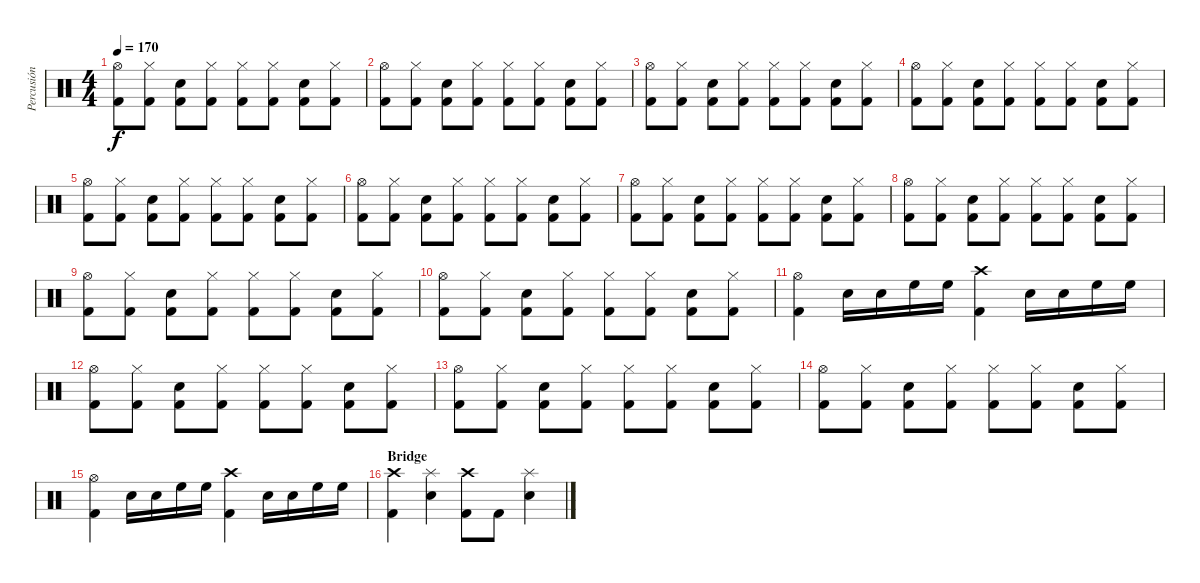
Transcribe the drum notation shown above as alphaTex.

\track ("Percusión" "Percusión") {instrument percussion}
\staff {score}
\articulation defaults
\ts (4 4)
\tempo 170
\clef neutral
\ks c
("Kick (hit) 2" "Hi-Hat (open)").8{dy f} ("Kick (hit) 2" "Hi-Hat (closed)").8 ("Kick (hit) 2" "Snare (hit) 2").8 ("Kick (hit) 2" "Hi-Hat (closed)").8 ("Kick (hit) 2" "Hi-Hat (closed)").8 ("Kick (hit) 2" "Hi-Hat (closed)").8 ("Kick (hit) 2" "Snare (hit) 2").8 ("Kick (hit) 2" "Hi-Hat (closed)").8 |
("Kick (hit) 2" "Hi-Hat (open)").8 ("Kick (hit) 2" "Hi-Hat (closed)").8 ("Kick (hit) 2" "Snare (hit) 2").8 ("Kick (hit) 2" "Hi-Hat (closed)").8 ("Kick (hit) 2" "Hi-Hat (closed)").8 ("Kick (hit) 2" "Hi-Hat (closed)").8 ("Kick (hit) 2" "Snare (hit) 2").8 ("Kick (hit) 2" "Hi-Hat (closed)").8 |
("Kick (hit) 2" "Hi-Hat (open)").8 ("Kick (hit) 2" "Hi-Hat (closed)").8 ("Kick (hit) 2" "Snare (hit) 2").8 ("Kick (hit) 2" "Hi-Hat (closed)").8 ("Kick (hit) 2" "Hi-Hat (closed)").8 ("Kick (hit) 2" "Hi-Hat (closed)").8 ("Kick (hit) 2" "Snare (hit) 2").8 ("Kick (hit) 2" "Hi-Hat (closed)").8 |
("Kick (hit) 2" "Hi-Hat (open)").8 ("Kick (hit) 2" "Hi-Hat (closed)").8 ("Kick (hit) 2" "Snare (hit) 2").8 ("Kick (hit) 2" "Hi-Hat (closed)").8 ("Kick (hit) 2" "Hi-Hat (closed)").8 ("Kick (hit) 2" "Hi-Hat (closed)").8 ("Kick (hit) 2" "Snare (hit) 2").8 ("Kick (hit) 2" "Hi-Hat (closed)").8 |
("Kick (hit) 2" "Hi-Hat (open)").8 ("Kick (hit) 2" "Hi-Hat (closed)").8 ("Kick (hit) 2" "Snare (hit) 2").8 ("Kick (hit) 2" "Hi-Hat (closed)").8 ("Kick (hit) 2" "Hi-Hat (closed)").8 ("Kick (hit) 2" "Hi-Hat (closed)").8 ("Kick (hit) 2" "Snare (hit) 2").8 ("Kick (hit) 2" "Hi-Hat (closed)").8 |
("Kick (hit) 2" "Hi-Hat (open)").8 ("Kick (hit) 2" "Hi-Hat (closed)").8 ("Kick (hit) 2" "Snare (hit) 2").8 ("Kick (hit) 2" "Hi-Hat (closed)").8 ("Kick (hit) 2" "Hi-Hat (closed)").8 ("Kick (hit) 2" "Hi-Hat (closed)").8 ("Kick (hit) 2" "Snare (hit) 2").8 ("Kick (hit) 2" "Hi-Hat (closed)").8 |
("Kick (hit) 2" "Hi-Hat (open)").8 ("Kick (hit) 2" "Hi-Hat (closed)").8 ("Kick (hit) 2" "Snare (hit) 2").8 ("Kick (hit) 2" "Hi-Hat (closed)").8 ("Kick (hit) 2" "Hi-Hat (closed)").8 ("Kick (hit) 2" "Hi-Hat (closed)").8 ("Kick (hit) 2" "Snare (hit) 2").8 ("Kick (hit) 2" "Hi-Hat (closed)").8 |
("Kick (hit) 2" "Hi-Hat (open)").8 ("Kick (hit) 2" "Hi-Hat (closed)").8 ("Kick (hit) 2" "Snare (hit) 2").8 ("Kick (hit) 2" "Hi-Hat (closed)").8 ("Kick (hit) 2" "Hi-Hat (closed)").8 ("Kick (hit) 2" "Hi-Hat (closed)").8 ("Kick (hit) 2" "Snare (hit) 2").8 ("Kick (hit) 2" "Hi-Hat (closed)").8 |
("Kick (hit) 2" "Hi-Hat (open)").8 ("Kick (hit) 2" "Hi-Hat (closed)").8 ("Kick (hit) 2" "Snare (hit) 2").8 ("Kick (hit) 2" "Hi-Hat (closed)").8 ("Kick (hit) 2" "Hi-Hat (closed)").8 ("Kick (hit) 2" "Hi-Hat (closed)").8 ("Kick (hit) 2" "Snare (hit) 2").8 ("Kick (hit) 2" "Hi-Hat (closed)").8 |
("Kick (hit) 2" "Hi-Hat (open)").8 ("Kick (hit) 2" "Hi-Hat (closed)").8 ("Kick (hit) 2" "Snare (hit) 2").8 ("Kick (hit) 2" "Hi-Hat (closed)").8 ("Kick (hit) 2" "Hi-Hat (closed)").8 ("Kick (hit) 2" "Hi-Hat (closed)").8 ("Kick (hit) 2" "Snare (hit) 2").8 ("Kick (hit) 2" "Hi-Hat (closed)").8 |
("Kick (hit) 2" "Hi-Hat (open)").4 "Snare (hit) 2".16 "Snare (hit) 2".16 "High Floor Tom (hit)".16 "High Floor Tom (hit)".16 ("Kick (hit) 2" "Crash high (hit)").4 "Snare (hit) 2".16 "Snare (hit) 2".16 "High Floor Tom (hit)".16 "High Floor Tom (hit)".16 |
("Kick (hit) 2" "Hi-Hat (open)").8 ("Kick (hit) 2" "Hi-Hat (closed)").8 ("Kick (hit) 2" "Snare (hit) 2").8 ("Kick (hit) 2" "Hi-Hat (closed)").8 ("Kick (hit) 2" "Hi-Hat (closed)").8 ("Kick (hit) 2" "Hi-Hat (closed)").8 ("Kick (hit) 2" "Snare (hit) 2").8 ("Kick (hit) 2" "Hi-Hat (closed)").8 |
("Kick (hit) 2" "Hi-Hat (open)").8 ("Kick (hit) 2" "Hi-Hat (closed)").8 ("Kick (hit) 2" "Snare (hit) 2").8 ("Kick (hit) 2" "Hi-Hat (closed)").8 ("Kick (hit) 2" "Hi-Hat (closed)").8 ("Kick (hit) 2" "Hi-Hat (closed)").8 ("Kick (hit) 2" "Snare (hit) 2").8 ("Kick (hit) 2" "Hi-Hat (closed)").8 |
("Kick (hit) 2" "Hi-Hat (open)").8 ("Kick (hit) 2" "Hi-Hat (closed)").8 ("Kick (hit) 2" "Snare (hit) 2").8 ("Kick (hit) 2" "Hi-Hat (closed)").8 ("Kick (hit) 2" "Hi-Hat (closed)").8 ("Kick (hit) 2" "Hi-Hat (closed)").8 ("Kick (hit) 2" "Snare (hit) 2").8 ("Kick (hit) 2" "Hi-Hat (closed)").8 |
("Kick (hit) 2" "Hi-Hat (open)").4 "Snare (hit) 2".16 "Snare (hit) 2".16 "High Floor Tom (hit)".16 "High Floor Tom (hit)".16 ("Kick (hit) 2" "Crash high (hit)").4 "Snare (hit) 2".16 "Snare (hit) 2".16 "High Floor Tom (hit)".16 "High Floor Tom (hit)".16 |
\section ("" "Bridge")
("Kick (hit) 2" "Crash high (hit)").4 ("Snare (hit) 2" "Splash (hit)").4 ("Kick (hit) 2" "Crash high (hit)").8 "Kick (hit) 2".8 ("Snare (hit) 2" "Splash (hit)").4
